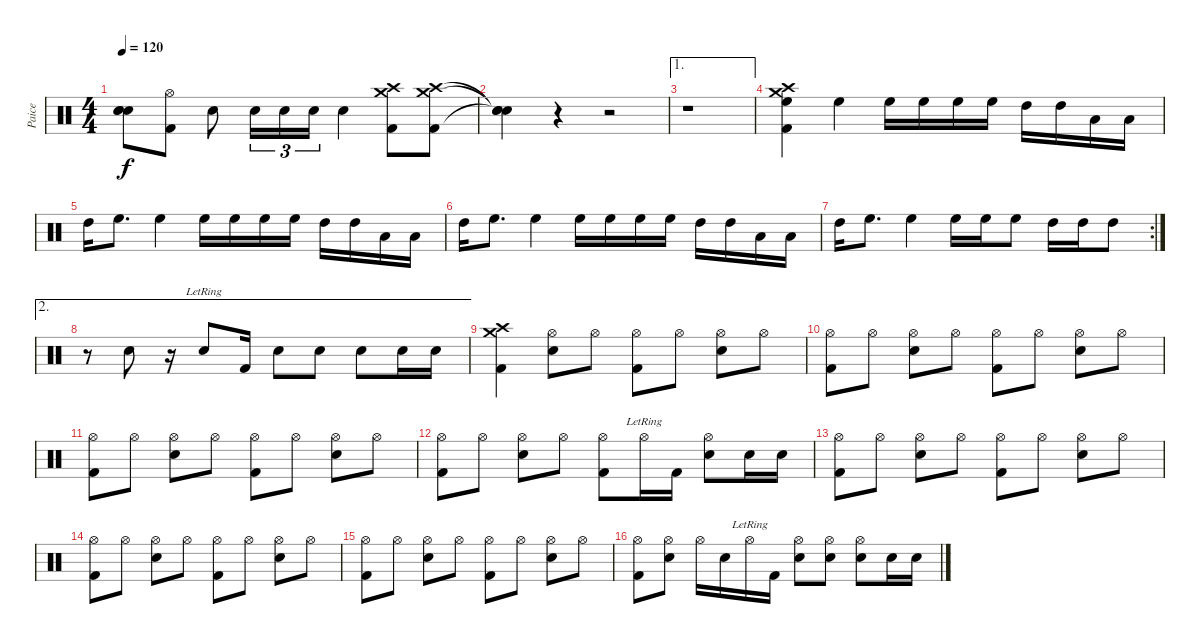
\track ("Paice" "Paice") {instrument percussion}
\staff {score}
\articulation defaults
\ts (4 4)
\tempo 120
\clef neutral
\ks c
("Snare (hit)"{t} "Snare (hit)"{t} "Snare (hit)"{t}).8{dy f} ("Hi-Hat (open)" "Kick (hit) 2").8 "Electric Snare (hit)".8 "Electric Snare (hit)".16{tu (3 2)} "Electric Snare (hit)".16{tu (3 2)} "Electric Snare (hit)".16{tu (3 2)} "Electric Snare (hit)".4 ("Crash high (hit)" "Crash medium (hit)" "Kick (hit) 2").8 ("Crash high (hit)" "Crash medium (hit)" "Kick (hit) 2").8 |
("Snare (hit)"{t} "Snare (hit)"{t} "Snare (hit)"{t}).4 r.4 r.2 |
\ae 1
r.1 |
("Crash high (hit)" "Crash medium (hit)" "High Floor Tom (hit)" "Kick (hit) 2").4 "High Floor Tom (hit)".4 "High Floor Tom (hit)".16 "High Floor Tom (hit)".16 "High Floor Tom (hit)".16 "High Floor Tom (hit)".16 "High Tom (hit)".16 "High Tom (hit)".16 "Low Tom (hit)".16 "Low Tom (hit)".16 |
"High Tom (hit)".16 "High Floor Tom (hit)".8{d} "High Floor Tom (hit)".4 "High Floor Tom (hit)".16 "High Floor Tom (hit)".16 "High Floor Tom (hit)".16 "High Floor Tom (hit)".16 "High Tom (hit)".16 "High Tom (hit)".16 "Low Tom (hit)".16 "Low Tom (hit)".16 |
"High Tom (hit)".16 "High Floor Tom (hit)".8{d} "High Floor Tom (hit)".4 "High Floor Tom (hit)".16 "High Floor Tom (hit)".16 "High Floor Tom (hit)".16 "High Floor Tom (hit)".16 "High Tom (hit)".16 "High Tom (hit)".16 "Low Tom (hit)".16 "Low Tom (hit)".16 |
\rc 2 "High Tom (hit)".16 "High Floor Tom (hit)".8{d} "High Floor Tom (hit)".4 "High Floor Tom (hit)".16 "High Floor Tom (hit)".16 "High Floor Tom (hit)".8 "High Tom (hit)".16 "High Tom (hit)".16 "High Tom (hit)".8
|
\ae 2
r.8 "Electric Snare (hit)".8 r.16 "Electric Snare (hit)"{lr}.8 "Kick (hit) 2".16 "Electric Snare (hit)".8 "Electric Snare (hit)".8 "Electric Snare (hit)".8 "Electric Snare (hit)".16 "Electric Snare (hit)".16 |
("Crash high (hit)" "Crash medium (hit)" "Kick (hit) 2").4 ("Hi-Hat (open)" "Electric Snare (hit)").8 "Hi-Hat (open)".8 ("Hi-Hat (open)" "Kick (hit) 2").8 "Hi-Hat (open)".8 ("Hi-Hat (open)" "Electric Snare (hit)").8 "Hi-Hat (open)".8 |
("Hi-Hat (open)" "Kick (hit) 2").8 "Hi-Hat (open)".8 ("Hi-Hat (open)" "Electric Snare (hit)").8 "Hi-Hat (open)".8 ("Hi-Hat (open)" "Kick (hit) 2").8 "Hi-Hat (open)".8 ("Hi-Hat (open)" "Electric Snare (hit)").8 "Hi-Hat (open)".8 |
("Hi-Hat (open)" "Kick (hit) 2").8 "Hi-Hat (open)".8 ("Hi-Hat (open)" "Electric Snare (hit)").8 "Hi-Hat (open)".8 ("Hi-Hat (open)" "Kick (hit) 2").8 "Hi-Hat (open)".8 ("Hi-Hat (open)" "Electric Snare (hit)").8 "Hi-Hat (open)".8 |
("Hi-Hat (open)" "Kick (hit) 2").8 "Hi-Hat (open)".8 ("Hi-Hat (open)" "Electric Snare (hit)").8 "Hi-Hat (open)".8 ("Hi-Hat (open)" "Kick (hit) 2").8 "Hi-Hat (open)"{lr}.16 "Kick (hit) 2".16 ("Hi-Hat (open)" "Electric Snare (hit)").8 "Electric Snare (hit)".16 "Electric Snare (hit)".16 |
("Hi-Hat (open)" "Kick (hit) 2").8 "Hi-Hat (open)".8 ("Hi-Hat (open)" "Electric Snare (hit)").8 "Hi-Hat (open)".8 ("Hi-Hat (open)" "Kick (hit) 2").8 "Hi-Hat (open)".8 ("Hi-Hat (open)" "Electric Snare (hit)").8 "Hi-Hat (open)".8 |
("Hi-Hat (open)" "Kick (hit) 2").8 "Hi-Hat (open)".8 ("Hi-Hat (open)" "Electric Snare (hit)").8 "Hi-Hat (open)".8 ("Hi-Hat (open)" "Kick (hit) 2").8 "Hi-Hat (open)".8 ("Hi-Hat (open)" "Electric Snare (hit)").8 "Hi-Hat (open)".8 |
("Hi-Hat (open)" "Kick (hit) 2").8 "Hi-Hat (open)".8 ("Hi-Hat (open)" "Electric Snare (hit)").8 "Hi-Hat (open)".8 ("Hi-Hat (open)" "Kick (hit) 2").8 "Hi-Hat (open)".8 ("Hi-Hat (open)" "Electric Snare (hit)").8 "Hi-Hat (open)".8 |
("Hi-Hat (open)" "Kick (hit) 2").8 ("Hi-Hat (open)" "Electric Snare (hit)").8 "Hi-Hat (open)".16 "Electric Snare (hit)".16 "Hi-Hat (open)"{lr}.16 "Kick (hit) 2".16 ("Hi-Hat (open)" "Electric Snare (hit)").8 ("Hi-Hat (open)" "Electric Snare (hit)").8 ("Hi-Hat (open)" "Electric Snare (hit)").8 "Electric Snare (hit)".16 "Electric Snare (hit)".16
